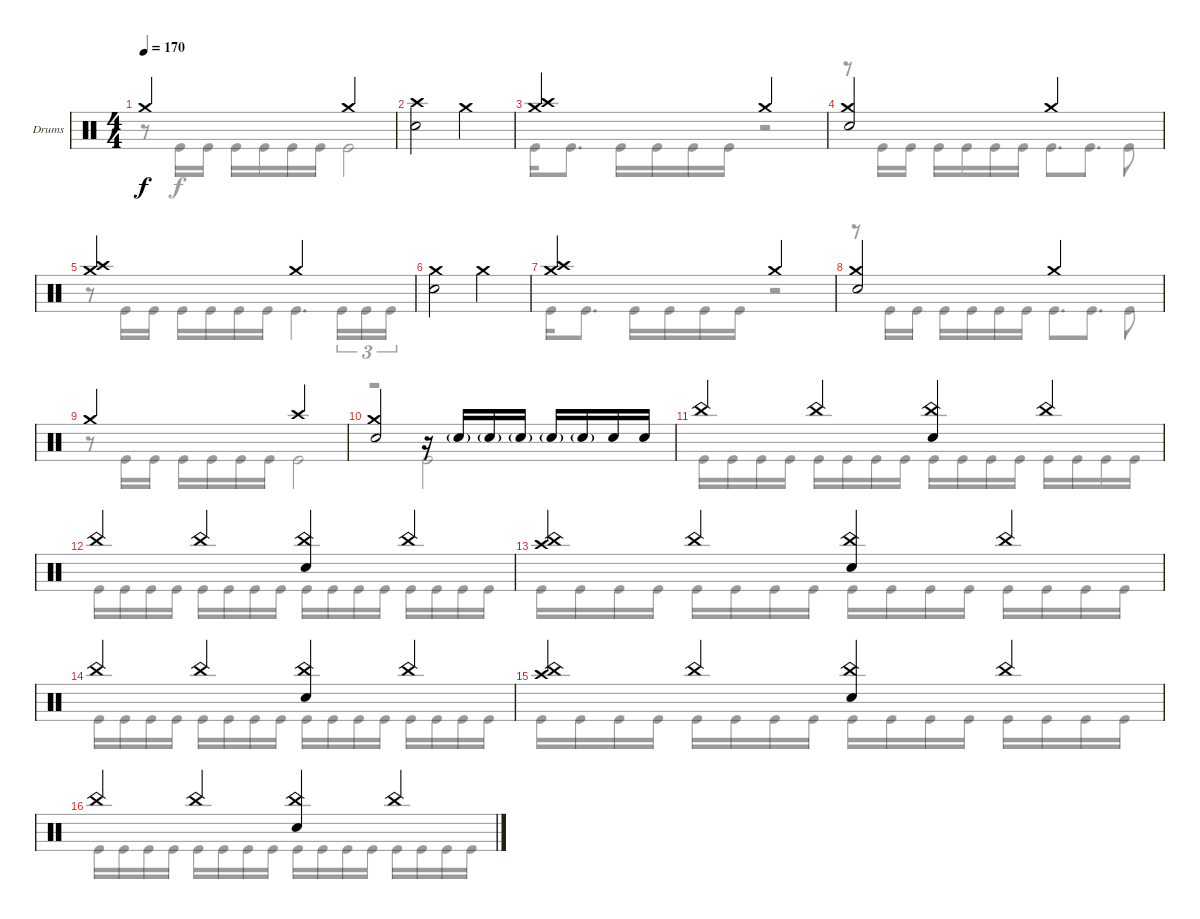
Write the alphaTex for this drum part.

\defaultSystemsLayout 4
\bracketExtendMode groupsimilarinstruments
\firstSystemTrackNameOrientation horizontal
\otherSystemsTrackNameOrientation horizontal
\track ("Drumkit" "Drums") {instrument percussion}
\staff {score}
\articulation defaults
\voice
\ts (4 4)
\tempo 170
\clef neutral
\ks c "Crash medium (hit)".2{dy f} "Crash medium (hit)".2
|
("Snare (hit) 2" "Crash high (hit)").2 "Crash medium (hit)".2 |
("Crash medium (hit)" "Crash high (hit)").2 "Crash medium (hit)".2 |
("Crash medium (hit)" "Snare (hit) 2").2 "Crash medium (hit)".2 |
("Crash medium (hit)" "Crash high (hit)").2 "Crash medium (hit)".2 |
("Snare (hit) 2" "Crash medium (hit)").2 "Crash medium (hit)".2 |
("Crash medium (hit)" "Crash high (hit)").2 "Crash medium (hit)".2 |
("Crash medium (hit)" "Snare (hit) 2").2 "Crash medium (hit)".2 |
"Crash medium (hit)".2 "Crash high (hit)".2 |
("Snare (hit) 2" "Crash medium (hit)").2 r.16 "Snare (hit) 2"{g}.16 "Snare (hit) 2"{g}.16 "Snare (hit) 2"{g}.16 "Snare (hit) 2"{g}.16 "Snare (hit) 2"{g}.16 "Snare (hit) 2".16 "Snare (hit) 2".16 |
"China (hit)".4 "China (hit)".4 ("China (hit)" "Snare (hit) 2").4 "China (hit)".4 |
"China (hit)".4 "China (hit)".4 ("China (hit)" "Snare (hit) 2").4 "China (hit)".4 |
("Crash high (hit)" "China (hit)").4 "China (hit)".4 ("China (hit)" "Snare (hit) 2").4 "China (hit)".4 |
"China (hit)".4 "China (hit)".4 ("China (hit)" "Snare (hit) 2").4 "China (hit)".4 |
("Crash high (hit)" "China (hit)").4 "China (hit)".4 ("China (hit)" "Snare (hit) 2").4 "China (hit)".4 |
"China (hit)".4 "China (hit)".4 ("China (hit)" "Snare (hit) 2").4 "China (hit)".4
\voice
\clef neutral
\ottava regular
\simile none
\ks c
r.8{dy f} "Kick (hit)".16 "Kick (hit)".16 "Kick (hit)".16 "Kick (hit)".16 "Kick (hit)".16 "Kick (hit)".16 "Kick (hit)".2 |
|
"Kick (hit)".16 "Kick (hit)".8{d} "Kick (hit)".16 "Kick (hit)".16 "Kick (hit)".16 "Kick (hit)".16 r.2 |
r.8 "Kick (hit)".16 "Kick (hit)".16 "Kick (hit)".16 "Kick (hit)".16 "Kick (hit)".16 "Kick (hit)".16 "Kick (hit)".8{d} "Kick (hit)".8{d} "Kick (hit)".8 |
r.8 "Kick (hit)".16 "Kick (hit)".16 "Kick (hit)".16 "Kick (hit)".16 "Kick (hit)".16 "Kick (hit)".16 "Kick (hit)".4{d} "Kick (hit)".16{tu (3 2)} "Kick (hit)".16{tu (3 2)} "Kick (hit)".16{tu (3 2)} |
|
"Kick (hit)".16 "Kick (hit)".8{d} "Kick (hit)".16 "Kick (hit)".16 "Kick (hit)".16 "Kick (hit)".16 r.2 |
r.8 "Kick (hit)".16 "Kick (hit)".16 "Kick (hit)".16 "Kick (hit)".16 "Kick (hit)".16 "Kick (hit)".16 "Kick (hit)".8{d} "Kick (hit)".8{d} "Kick (hit)".8 |
r.8 "Kick (hit)".16 "Kick (hit)".16 "Kick (hit)".16 "Kick (hit)".16 "Kick (hit)".16 "Kick (hit)".16 "Kick (hit)".2 |
r.2 "Kick (hit)".2 |
"Kick (hit)".16 "Kick (hit)".16 "Kick (hit)".16 "Kick (hit)".16 "Kick (hit)".16 "Kick (hit)".16 "Kick (hit)".16 "Kick (hit)".16 "Kick (hit)".16 "Kick (hit)".16 "Kick (hit)".16 "Kick (hit)".16 "Kick (hit)".16 "Kick (hit)".16 "Kick (hit)".16 "Kick (hit)".16 |
"Kick (hit)".16 "Kick (hit)".16 "Kick (hit)".16 "Kick (hit)".16 "Kick (hit)".16 "Kick (hit)".16 "Kick (hit)".16 "Kick (hit)".16 "Kick (hit)".16 "Kick (hit)".16 "Kick (hit)".16 "Kick (hit)".16 "Kick (hit)".16 "Kick (hit)".16 "Kick (hit)".16 "Kick (hit)".16 |
"Kick (hit)".16 "Kick (hit)".16 "Kick (hit)".16 "Kick (hit)".16 "Kick (hit)".16 "Kick (hit)".16 "Kick (hit)".16 "Kick (hit)".16 "Kick (hit)".16 "Kick (hit)".16 "Kick (hit)".16 "Kick (hit)".16 "Kick (hit)".16 "Kick (hit)".16 "Kick (hit)".16 "Kick (hit)".16 |
"Kick (hit)".16 "Kick (hit)".16 "Kick (hit)".16 "Kick (hit)".16 "Kick (hit)".16 "Kick (hit)".16 "Kick (hit)".16 "Kick (hit)".16 "Kick (hit)".16 "Kick (hit)".16 "Kick (hit)".16 "Kick (hit)".16 "Kick (hit)".16 "Kick (hit)".16 "Kick (hit)".16 "Kick (hit)".16 |
"Kick (hit)".16 "Kick (hit)".16 "Kick (hit)".16 "Kick (hit)".16 "Kick (hit)".16 "Kick (hit)".16 "Kick (hit)".16 "Kick (hit)".16 "Kick (hit)".16 "Kick (hit)".16 "Kick (hit)".16 "Kick (hit)".16 "Kick (hit)".16 "Kick (hit)".16 "Kick (hit)".16 "Kick (hit)".16 |
"Kick (hit)".16 "Kick (hit)".16 "Kick (hit)".16 "Kick (hit)".16 "Kick (hit)".16 "Kick (hit)".16 "Kick (hit)".16 "Kick (hit)".16 "Kick (hit)".16 "Kick (hit)".16 "Kick (hit)".16 "Kick (hit)".16 "Kick (hit)".16 "Kick (hit)".16 "Kick (hit)".16 "Kick (hit)".16
